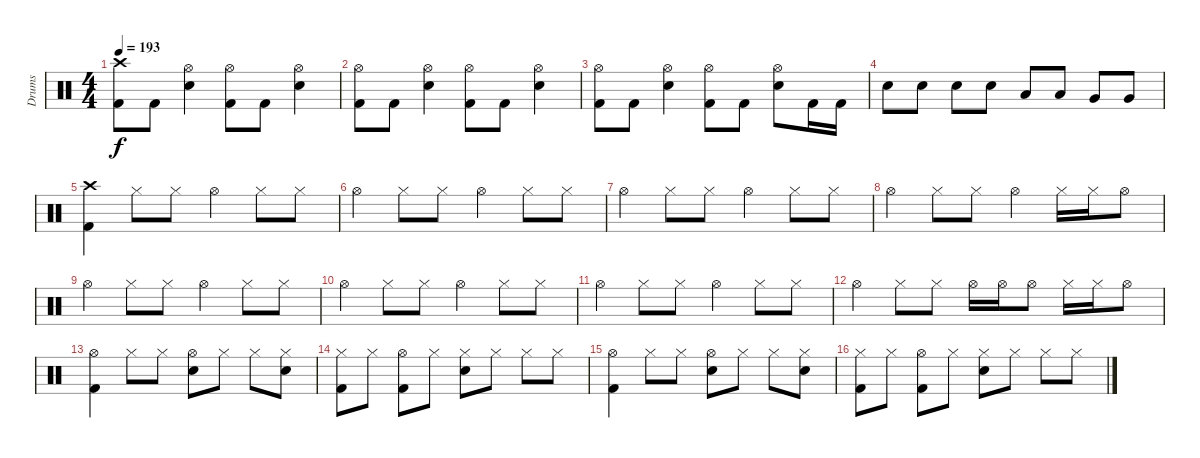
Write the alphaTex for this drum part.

\track ("Drums" "Drums") {instrument percussion}
\staff {score}
\articulation defaults
\ts (4 4)
\tempo 193
\clef neutral
\ks c
("Crash high (hit)" "Kick (hit) 2").8{dy f} "Kick (hit) 2".8 ("Hi-Hat (open)" "Electric Snare (hit)").4 ("Hi-Hat (open)" "Kick (hit) 2").8 "Kick (hit) 2".8 ("Hi-Hat (open)" "Electric Snare (hit)").4 |
("Hi-Hat (open)" "Kick (hit) 2").8 "Kick (hit) 2".8 ("Hi-Hat (open)" "Electric Snare (hit)").4 ("Hi-Hat (open)" "Kick (hit) 2").8 "Kick (hit) 2".8 ("Hi-Hat (open)" "Electric Snare (hit)").4 |
("Hi-Hat (open)" "Kick (hit) 2").8 "Kick (hit) 2".8 ("Hi-Hat (open)" "Electric Snare (hit)").4 ("Hi-Hat (open)" "Kick (hit) 2").8 "Kick (hit) 2".8 ("Hi-Hat (open)" "Electric Snare (hit)").8 "Kick (hit) 2".16 "Kick (hit) 2".16 |
"Electric Snare (hit)".8 "Electric Snare (hit)".8 "Electric Snare (hit)".8 "Electric Snare (hit)".8 "Low Tom (hit)".8 "Low Tom (hit)".8 "Very Low Tom (hit)".8 "Very Low Tom (hit)".8 |
("Crash high (hit)" "Kick (hit) 2").4 "Hi-Hat (closed)".8 "Hi-Hat (closed)".8 "Hi-Hat (open)".4 "Hi-Hat (closed)".8 "Hi-Hat (closed)".8 |
"Hi-Hat (open)".4 "Hi-Hat (closed)".8 "Hi-Hat (closed)".8 "Hi-Hat (open)".4 "Hi-Hat (closed)".8 "Hi-Hat (closed)".8 |
"Hi-Hat (open)".4 "Hi-Hat (closed)".8 "Hi-Hat (closed)".8 "Hi-Hat (open)".4 "Hi-Hat (closed)".8 "Hi-Hat (closed)".8 |
"Hi-Hat (open)".4 "Hi-Hat (closed)".8 "Hi-Hat (closed)".8 "Hi-Hat (open)".4 "Hi-Hat (closed)".16 "Hi-Hat (closed)".16 "Hi-Hat (open)".8 |
"Hi-Hat (open)".4 "Hi-Hat (closed)".8 "Hi-Hat (closed)".8 "Hi-Hat (open)".4 "Hi-Hat (closed)".8 "Hi-Hat (closed)".8 |
"Hi-Hat (open)".4 "Hi-Hat (closed)".8 "Hi-Hat (closed)".8 "Hi-Hat (open)".4 "Hi-Hat (closed)".8 "Hi-Hat (closed)".8 |
"Hi-Hat (open)".4 "Hi-Hat (closed)".8 "Hi-Hat (closed)".8 "Hi-Hat (open)".4 "Hi-Hat (closed)".8 "Hi-Hat (closed)".8 |
"Hi-Hat (open)".4 "Hi-Hat (closed)".8 "Hi-Hat (closed)".8 "Hi-Hat (open)".16 "Hi-Hat (open)".16 "Hi-Hat (open)".8 "Hi-Hat (closed)".16 "Hi-Hat (closed)".16 "Hi-Hat (open)".8 |
("Hi-Hat (open)" "Kick (hit) 2").4 "Hi-Hat (closed)".8 "Hi-Hat (closed)".8 ("Hi-Hat (open)" "Electric Snare (hit)").8 "Hi-Hat (closed)".8 "Hi-Hat (closed)".8 ("Hi-Hat (closed)" "Electric Snare (hit)").8 |
("Hi-Hat (closed)" "Kick (hit) 2").8 "Hi-Hat (closed)".8 ("Hi-Hat (open)" "Kick (hit) 2").8 "Hi-Hat (closed)".8 ("Hi-Hat (closed)" "Electric Snare (hit)").8 "Hi-Hat (closed)".8 "Hi-Hat (closed)".8 "Hi-Hat (closed)".8 |
("Hi-Hat (open)" "Kick (hit) 2").4 "Hi-Hat (closed)".8 "Hi-Hat (closed)".8 ("Hi-Hat (open)" "Electric Snare (hit)").8 "Hi-Hat (closed)".8 "Hi-Hat (closed)".8 ("Hi-Hat (closed)" "Electric Snare (hit)").8 |
("Hi-Hat (closed)" "Kick (hit) 2").8 "Hi-Hat (closed)".8 ("Hi-Hat (open)" "Kick (hit) 2").8 "Hi-Hat (closed)".8 ("Hi-Hat (closed)" "Electric Snare (hit)").8 "Hi-Hat (closed)".8 "Hi-Hat (closed)".8 "Hi-Hat (closed)".8
